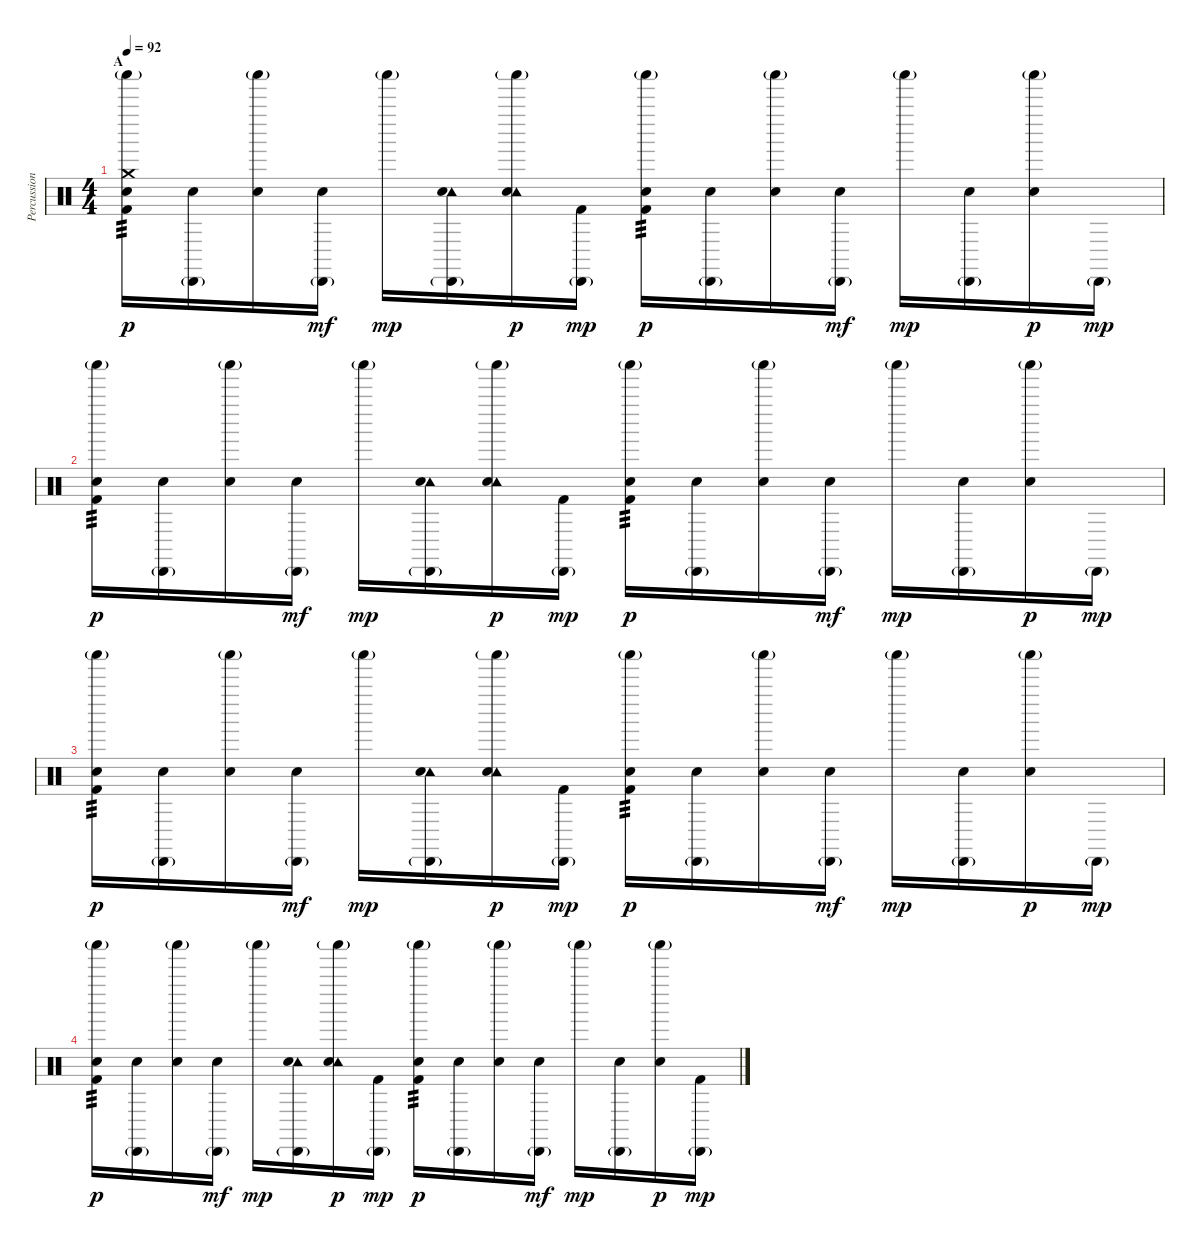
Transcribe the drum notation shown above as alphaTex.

\track ("Percussion2" "Percussion") {instrument percussion}
\staff {score}
\articulation defaults
\ts (4 4)
\section ("" "A")
\tempo 92
\clef neutral
\ks c
("Shaker (hit)"{g} "Crash medium (hit)" "Snare (hit) 2" "Kick (hit) 2").16{tp 3 dy p} ("Cabasa (hit)"{g} "Snare (hit) 2").16 ("Shaker (hit)"{g} "Snare (hit) 2").16 ("Cabasa (hit)"{g} "Snare (hit) 2").16{dy mf} "Shaker (hit)"{g}.16{dy mp} ("Cabasa (hit)"{g} "Tambourine (hit)" "Snare (hit) 2").16 ("Shaker (hit)"{g} "Tambourine (hit)" "Snare (hit) 2").16{dy p} ("Cabasa (hit)"{g} "Kick (hit) 2").16{dy mp} ("Shaker (hit)"{g} "Snare (hit) 2" "Kick (hit) 2").16{tp 3 dy p} ("Cabasa (hit)"{g} "Snare (hit) 2").16 ("Shaker (hit)"{g} "Snare (hit) 2").16 ("Cabasa (hit)"{g} "Snare (hit) 2").16{dy mf} "Shaker (hit)"{g}.16{dy mp} ("Cabasa (hit)"{g} "Snare (hit) 2").16 ("Shaker (hit)"{g} "Snare (hit) 2").16{dy p} "Cabasa (hit)"{g}.16{dy mp} |
("Shaker (hit)"{g} "Snare (hit) 2" "Kick (hit) 2").16{tp 3 dy p} ("Cabasa (hit)"{g} "Snare (hit) 2").16 ("Shaker (hit)"{g} "Snare (hit) 2").16 ("Cabasa (hit)"{g} "Snare (hit) 2").16{dy mf} "Shaker (hit)"{g}.16{dy mp} ("Cabasa (hit)"{g} "Tambourine (hit)" "Snare (hit) 2").16 ("Shaker (hit)"{g} "Tambourine (hit)" "Snare (hit) 2").16{dy p} ("Cabasa (hit)"{g} "Kick (hit) 2").16{dy mp} ("Shaker (hit)"{g} "Snare (hit) 2" "Kick (hit) 2").16{tp 3 dy p} ("Cabasa (hit)"{g} "Snare (hit) 2").16 ("Shaker (hit)"{g} "Snare (hit) 2").16 ("Cabasa (hit)"{g} "Snare (hit) 2").16{dy mf} "Shaker (hit)"{g}.16{dy mp} ("Cabasa (hit)"{g} "Snare (hit) 2").16 ("Shaker (hit)"{g} "Snare (hit) 2").16{dy p} "Cabasa (hit)"{g}.16{dy mp} |
("Shaker (hit)"{g} "Snare (hit) 2" "Kick (hit) 2").16{tp 3 dy p} ("Cabasa (hit)"{g} "Snare (hit) 2").16 ("Shaker (hit)"{g} "Snare (hit) 2").16 ("Cabasa (hit)"{g} "Snare (hit) 2").16{dy mf} "Shaker (hit)"{g}.16{dy mp} ("Cabasa (hit)"{g} "Tambourine (hit)" "Snare (hit) 2").16 ("Shaker (hit)"{g} "Tambourine (hit)" "Snare (hit) 2").16{dy p} ("Cabasa (hit)"{g} "Kick (hit) 2").16{dy mp} ("Shaker (hit)"{g} "Snare (hit) 2" "Kick (hit) 2").16{tp 3 dy p} ("Cabasa (hit)"{g} "Snare (hit) 2").16 ("Shaker (hit)"{g} "Snare (hit) 2").16 ("Cabasa (hit)"{g} "Snare (hit) 2").16{dy mf} "Shaker (hit)"{g}.16{dy mp} ("Cabasa (hit)"{g} "Snare (hit) 2").16 ("Shaker (hit)"{g} "Snare (hit) 2").16{dy p} "Cabasa (hit)"{g}.16{dy mp} |
("Shaker (hit)"{g} "Snare (hit) 2" "Kick (hit) 2").16{tp 3 dy p} ("Cabasa (hit)"{g} "Snare (hit) 2").16 ("Shaker (hit)"{g} "Snare (hit) 2").16 ("Cabasa (hit)"{g} "Snare (hit) 2").16{dy mf} "Shaker (hit)"{g}.16{dy mp} ("Cabasa (hit)"{g} "Tambourine (hit)" "Snare (hit) 2").16 ("Shaker (hit)"{g} "Tambourine (hit)" "Snare (hit) 2").16{dy p} ("Cabasa (hit)"{g} "Kick (hit) 2").16{dy mp} ("Shaker (hit)"{g} "Snare (hit) 2" "Kick (hit) 2").16{tp 3 dy p} ("Cabasa (hit)"{g} "Snare (hit) 2").16 ("Shaker (hit)"{g} "Snare (hit) 2").16 ("Cabasa (hit)"{g} "Snare (hit) 2").16{dy mf} "Shaker (hit)"{g}.16{dy mp} ("Cabasa (hit)"{g} "Snare (hit) 2").16 ("Shaker (hit)"{g} "Snare (hit) 2").16{dy p} ("Cabasa (hit)"{g} "Kick (hit) 2").16{dy mp}
